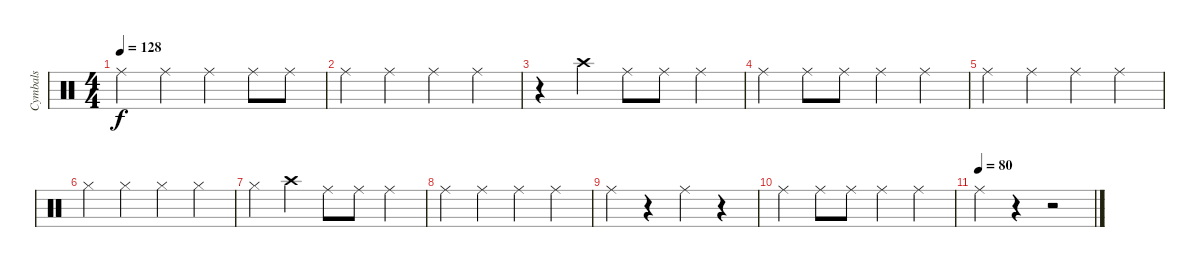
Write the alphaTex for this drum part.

\track ("Cymbals" "Cymbals") {instrument percussion}
\staff {score}
\articulation defaults
\ts (4 4)
\tempo 128
\clef neutral
\ks c "Ride (middle)".4{dy f} "Ride (middle)".4 "Ride (middle)".4 "Ride (middle)".8 "Ride (middle)".8
|
"Ride (middle)".4 "Ride (middle)".4 "Ride (middle)".4 "Ride (middle)".4 |
r.4 "Crash high (hit)".4 "Ride (middle)".8 "Ride (middle)".8 "Ride (middle)".4 |
"Ride (middle)".4 "Ride (middle)".8 "Ride (middle)".8 "Ride (middle)".4 "Ride (middle)".4 |
"Ride (middle)".4 "Ride (middle)".4 "Ride (middle)".4 "Ride (middle)".4 |
"Hi-Hat (closed)".4 "Hi-Hat (closed)".4 "Hi-Hat (closed)".4 "Hi-Hat (closed)".4 |
"Hi-Hat (closed)".4 "Crash high (hit)".4 "Ride (middle)".8 "Ride (middle)".8 "Ride (middle)".4 |
"Ride (middle)".4 "Ride (middle)".4 "Ride (middle)".4 "Ride (middle)".4 |
"Ride (middle)".4 r.4 "Ride (middle)".4 r.4 |
"Ride (middle)".4 "Ride (middle)".8 "Ride (middle)".8 "Ride (middle)".4 "Ride (middle)".4 |
\tempo (80)
"Ride (middle)".4 r.4 r.2
